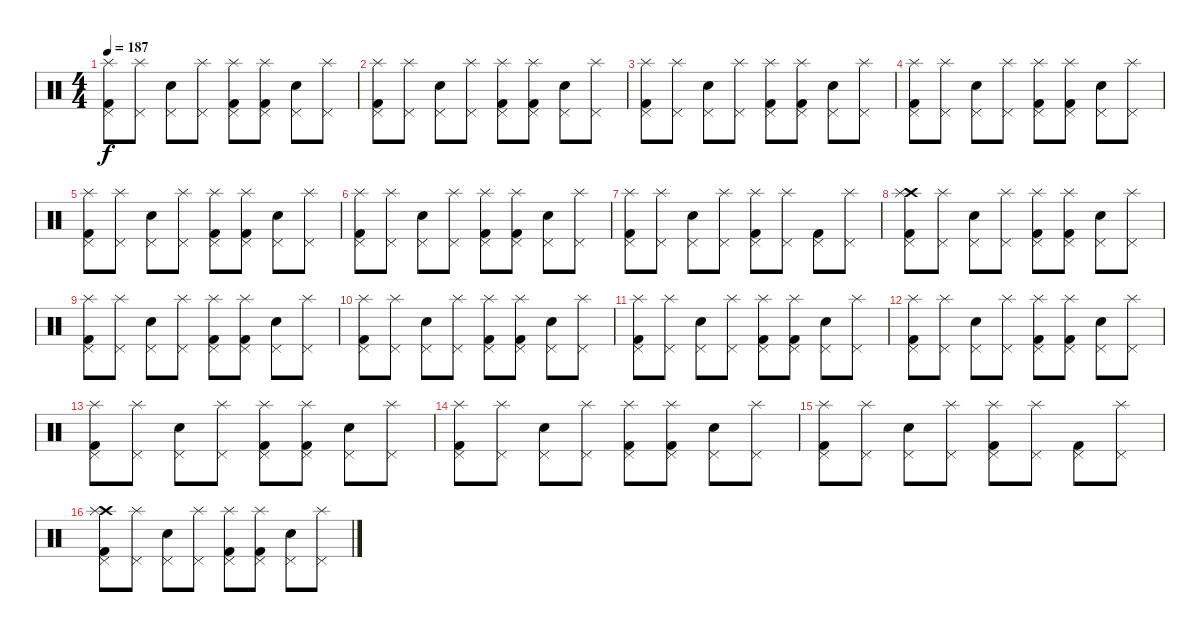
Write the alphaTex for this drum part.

\track "" {instrument percussion}
\staff {score}
\articulation defaults
\ts (4 4)
\tempo 187
\clef neutral
\ks c
("Splash (hit)" "Pedal Hi-Hat (hit)" "Kick (hit) 2").8{dy f} ("Splash (hit)" "Pedal Hi-Hat (hit)").8 ("Pedal Hi-Hat (hit)" "Electric Snare (hit)").8 ("Splash (hit)" "Pedal Hi-Hat (hit)").8 ("Splash (hit)" "Pedal Hi-Hat (hit)" "Kick (hit) 2").8 ("Splash (hit)" "Pedal Hi-Hat (hit)" "Kick (hit) 2").8 ("Pedal Hi-Hat (hit)" "Electric Snare (hit)").8 ("Splash (hit)" "Pedal Hi-Hat (hit)").8 |
("Splash (hit)" "Pedal Hi-Hat (hit)" "Kick (hit) 2").8 ("Splash (hit)" "Pedal Hi-Hat (hit)").8 ("Pedal Hi-Hat (hit)" "Electric Snare (hit)").8 ("Splash (hit)" "Pedal Hi-Hat (hit)").8 ("Splash (hit)" "Pedal Hi-Hat (hit)" "Kick (hit) 2").8 ("Splash (hit)" "Pedal Hi-Hat (hit)" "Kick (hit) 2").8 ("Pedal Hi-Hat (hit)" "Electric Snare (hit)").8 ("Splash (hit)" "Pedal Hi-Hat (hit)").8 |
("Splash (hit)" "Pedal Hi-Hat (hit)" "Kick (hit) 2").8 ("Splash (hit)" "Pedal Hi-Hat (hit)").8 ("Pedal Hi-Hat (hit)" "Electric Snare (hit)").8 ("Splash (hit)" "Pedal Hi-Hat (hit)").8 ("Splash (hit)" "Pedal Hi-Hat (hit)" "Kick (hit) 2").8 ("Splash (hit)" "Pedal Hi-Hat (hit)" "Kick (hit) 2").8 ("Pedal Hi-Hat (hit)" "Electric Snare (hit)").8 ("Splash (hit)" "Pedal Hi-Hat (hit)").8 |
("Splash (hit)" "Pedal Hi-Hat (hit)" "Kick (hit) 2").8 ("Splash (hit)" "Pedal Hi-Hat (hit)").8 ("Pedal Hi-Hat (hit)" "Electric Snare (hit)").8 ("Splash (hit)" "Pedal Hi-Hat (hit)").8 ("Splash (hit)" "Pedal Hi-Hat (hit)" "Kick (hit) 2").8 ("Splash (hit)" "Pedal Hi-Hat (hit)" "Kick (hit) 2").8 ("Pedal Hi-Hat (hit)" "Electric Snare (hit)").8 ("Splash (hit)" "Pedal Hi-Hat (hit)").8 |
("Splash (hit)" "Pedal Hi-Hat (hit)" "Kick (hit) 2").8 ("Splash (hit)" "Pedal Hi-Hat (hit)").8 ("Pedal Hi-Hat (hit)" "Electric Snare (hit)").8 ("Splash (hit)" "Pedal Hi-Hat (hit)").8 ("Splash (hit)" "Pedal Hi-Hat (hit)" "Kick (hit) 2").8 ("Splash (hit)" "Pedal Hi-Hat (hit)" "Kick (hit) 2").8 ("Pedal Hi-Hat (hit)" "Electric Snare (hit)").8 ("Splash (hit)" "Pedal Hi-Hat (hit)").8 |
("Splash (hit)" "Pedal Hi-Hat (hit)" "Kick (hit) 2").8 ("Splash (hit)" "Pedal Hi-Hat (hit)").8 ("Pedal Hi-Hat (hit)" "Electric Snare (hit)").8 ("Splash (hit)" "Pedal Hi-Hat (hit)").8 ("Splash (hit)" "Pedal Hi-Hat (hit)" "Kick (hit) 2").8 ("Splash (hit)" "Pedal Hi-Hat (hit)" "Kick (hit) 2").8 ("Pedal Hi-Hat (hit)" "Electric Snare (hit)").8 ("Splash (hit)" "Pedal Hi-Hat (hit)").8 |
("Pedal Hi-Hat (hit)" "Kick (hit) 2" "Splash (hit)").8 ("Pedal Hi-Hat (hit)" "Splash (hit)").8 ("Pedal Hi-Hat (hit)" "Electric Snare (hit)").8 ("Pedal Hi-Hat (hit)" "Splash (hit)").8 ("Pedal Hi-Hat (hit)" "Kick (hit) 2" "Splash (hit)").8 ("Pedal Hi-Hat (hit)" "Splash (hit)").8 ("Pedal Hi-Hat (hit)" "Kick (hit) 2").8 ("Pedal Hi-Hat (hit)" "Splash (hit)").8 |
("Crash high (hit)" "Splash (hit)" "Pedal Hi-Hat (hit)" "Kick (hit) 2").8 ("Splash (hit)" "Pedal Hi-Hat (hit)").8 ("Pedal Hi-Hat (hit)" "Electric Snare (hit)").8 ("Splash (hit)" "Pedal Hi-Hat (hit)").8 ("Splash (hit)" "Pedal Hi-Hat (hit)" "Kick (hit) 2").8 ("Splash (hit)" "Pedal Hi-Hat (hit)" "Kick (hit) 2").8 ("Pedal Hi-Hat (hit)" "Electric Snare (hit)").8 ("Splash (hit)" "Pedal Hi-Hat (hit)").8 |
("Pedal Hi-Hat (hit)" "Kick (hit) 2" "Splash (hit)").8 ("Pedal Hi-Hat (hit)" "Splash (hit)").8 ("Pedal Hi-Hat (hit)" "Electric Snare (hit)").8 ("Pedal Hi-Hat (hit)" "Splash (hit)").8 ("Pedal Hi-Hat (hit)" "Kick (hit) 2" "Splash (hit)").8 ("Pedal Hi-Hat (hit)" "Kick (hit) 2" "Splash (hit)").8 ("Pedal Hi-Hat (hit)" "Electric Snare (hit)").8 ("Pedal Hi-Hat (hit)" "Splash (hit)").8 |
("Pedal Hi-Hat (hit)" "Kick (hit) 2" "Splash (hit)").8 ("Pedal Hi-Hat (hit)" "Splash (hit)").8 ("Pedal Hi-Hat (hit)" "Electric Snare (hit)").8 ("Pedal Hi-Hat (hit)" "Splash (hit)").8 ("Pedal Hi-Hat (hit)" "Kick (hit) 2" "Splash (hit)").8 ("Pedal Hi-Hat (hit)" "Kick (hit) 2" "Splash (hit)").8 ("Pedal Hi-Hat (hit)" "Electric Snare (hit)").8 ("Pedal Hi-Hat (hit)" "Splash (hit)").8 |
("Pedal Hi-Hat (hit)" "Kick (hit) 2" "Splash (hit)").8 ("Pedal Hi-Hat (hit)" "Splash (hit)").8 ("Pedal Hi-Hat (hit)" "Electric Snare (hit)").8 ("Pedal Hi-Hat (hit)" "Splash (hit)").8 ("Pedal Hi-Hat (hit)" "Kick (hit) 2" "Splash (hit)").8 ("Pedal Hi-Hat (hit)" "Kick (hit) 2" "Splash (hit)").8 ("Pedal Hi-Hat (hit)" "Electric Snare (hit)").8 ("Pedal Hi-Hat (hit)" "Splash (hit)").8 |
("Pedal Hi-Hat (hit)" "Kick (hit) 2" "Splash (hit)").8 ("Pedal Hi-Hat (hit)" "Splash (hit)").8 ("Pedal Hi-Hat (hit)" "Electric Snare (hit)").8 ("Pedal Hi-Hat (hit)" "Splash (hit)").8 ("Pedal Hi-Hat (hit)" "Kick (hit) 2" "Splash (hit)").8 ("Pedal Hi-Hat (hit)" "Kick (hit) 2" "Splash (hit)").8 ("Pedal Hi-Hat (hit)" "Electric Snare (hit)").8 ("Pedal Hi-Hat (hit)" "Splash (hit)").8 |
("Pedal Hi-Hat (hit)" "Kick (hit) 2" "Splash (hit)").8 ("Pedal Hi-Hat (hit)" "Splash (hit)").8 ("Pedal Hi-Hat (hit)" "Electric Snare (hit)").8 ("Pedal Hi-Hat (hit)" "Splash (hit)").8 ("Pedal Hi-Hat (hit)" "Kick (hit) 2" "Splash (hit)").8 ("Pedal Hi-Hat (hit)" "Kick (hit) 2" "Splash (hit)").8 ("Pedal Hi-Hat (hit)" "Electric Snare (hit)").8 ("Pedal Hi-Hat (hit)" "Splash (hit)").8 |
("Pedal Hi-Hat (hit)" "Kick (hit) 2" "Splash (hit)").8 ("Pedal Hi-Hat (hit)" "Splash (hit)").8 ("Pedal Hi-Hat (hit)" "Electric Snare (hit)").8 ("Pedal Hi-Hat (hit)" "Splash (hit)").8 ("Pedal Hi-Hat (hit)" "Kick (hit) 2" "Splash (hit)").8 ("Pedal Hi-Hat (hit)" "Kick (hit) 2" "Splash (hit)").8 ("Pedal Hi-Hat (hit)" "Electric Snare (hit)").8 ("Pedal Hi-Hat (hit)" "Splash (hit)").8 |
("Splash (hit)" "Pedal Hi-Hat (hit)" "Kick (hit) 2").8 ("Splash (hit)" "Pedal Hi-Hat (hit)").8 ("Electric Snare (hit)" "Pedal Hi-Hat (hit)").8 ("Splash (hit)" "Pedal Hi-Hat (hit)").8 ("Splash (hit)" "Pedal Hi-Hat (hit)" "Kick (hit) 2").8 ("Splash (hit)" "Pedal Hi-Hat (hit)").8 ("Kick (hit) 2" "Pedal Hi-Hat (hit)").8 ("Splash (hit)" "Pedal Hi-Hat (hit)").8 |
("Pedal Hi-Hat (hit)" "Kick (hit) 2" "Crash high (hit)" "Splash (hit)").8 ("Pedal Hi-Hat (hit)" "Splash (hit)").8 ("Pedal Hi-Hat (hit)" "Electric Snare (hit)").8 ("Pedal Hi-Hat (hit)" "Splash (hit)").8 ("Pedal Hi-Hat (hit)" "Kick (hit) 2" "Splash (hit)").8 ("Pedal Hi-Hat (hit)" "Kick (hit) 2" "Splash (hit)").8 ("Pedal Hi-Hat (hit)" "Electric Snare (hit)").8 ("Pedal Hi-Hat (hit)" "Splash (hit)").8
